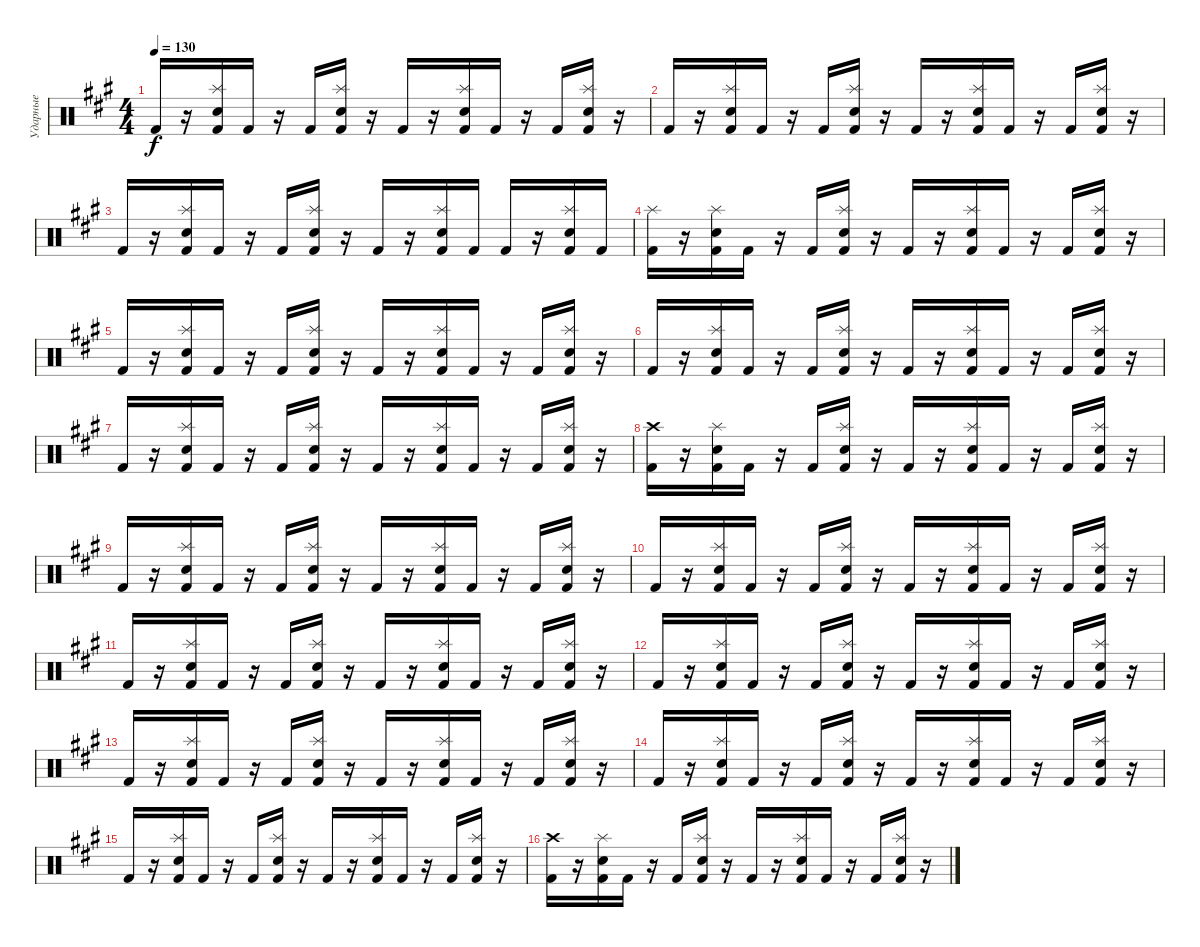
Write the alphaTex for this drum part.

\track ("Ударные" "Ударные") {instrument percussion}
\staff {score}
\articulation defaults
\ts (4 4)
\tempo 130
\clef neutral
\ks f#minor "Kick (hit) 2".16{dy f}
r.16 ("Splash (hit)" "Snare (hit) 2" "Kick (hit) 2").16 "Kick (hit) 2".16 r.16 "Kick (hit) 2".16 ("Splash (hit)" "Snare (hit) 2" "Kick (hit) 2").16 r.16 "Kick (hit) 2".16 r.16 ("Splash (hit)" "Snare (hit) 2" "Kick (hit) 2").16 "Kick (hit) 2".16 r.16 "Kick (hit) 2".16 ("Splash (hit)" "Snare (hit) 2" "Kick (hit) 2").16 r.16 |
"Kick (hit) 2".16 r.16 ("Splash (hit)" "Snare (hit) 2" "Kick (hit) 2").16 "Kick (hit) 2".16 r.16 "Kick (hit) 2".16 ("Splash (hit)" "Snare (hit) 2" "Kick (hit) 2").16 r.16 "Kick (hit) 2".16 r.16 ("Splash (hit)" "Snare (hit) 2" "Kick (hit) 2").16 "Kick (hit) 2".16 r.16 "Kick (hit) 2".16 ("Splash (hit)" "Snare (hit) 2" "Kick (hit) 2").16 r.16 |
"Kick (hit) 2".16 r.16 ("Splash (hit)" "Snare (hit) 2" "Kick (hit) 2").16 "Kick (hit) 2".16 r.16 "Kick (hit) 2".16 ("Splash (hit)" "Snare (hit) 2" "Kick (hit) 2").16 r.16 "Kick (hit) 2".16 r.16 ("Splash (hit)" "Snare (hit) 2" "Kick (hit) 2").16 "Kick (hit) 2".16 "Kick (hit) 2".16 r.16 ("Splash (hit)" "Snare (hit) 2" "Kick (hit) 2").16 "Kick (hit) 2".16 |
("Splash (hit)" "Kick (hit) 2").16 r.16 ("Splash (hit)" "Snare (hit) 2" "Kick (hit) 2").16 "Kick (hit) 2".16 r.16 "Kick (hit) 2".16 ("Splash (hit)" "Snare (hit) 2" "Kick (hit) 2").16 r.16 "Kick (hit) 2".16 r.16 ("Splash (hit)" "Snare (hit) 2" "Kick (hit) 2").16 "Kick (hit) 2".16 r.16 "Kick (hit) 2".16 ("Splash (hit)" "Snare (hit) 2" "Kick (hit) 2").16 r.16 |
"Kick (hit) 2".16 r.16 ("Splash (hit)" "Snare (hit) 2" "Kick (hit) 2").16 "Kick (hit) 2".16 r.16 "Kick (hit) 2".16 ("Splash (hit)" "Snare (hit) 2" "Kick (hit) 2").16 r.16 "Kick (hit) 2".16 r.16 ("Splash (hit)" "Snare (hit) 2" "Kick (hit) 2").16 "Kick (hit) 2".16 r.16 "Kick (hit) 2".16 ("Splash (hit)" "Snare (hit) 2" "Kick (hit) 2").16 r.16 |
"Kick (hit) 2".16 r.16 ("Splash (hit)" "Snare (hit) 2" "Kick (hit) 2").16 "Kick (hit) 2".16 r.16 "Kick (hit) 2".16 ("Splash (hit)" "Snare (hit) 2" "Kick (hit) 2").16 r.16 "Kick (hit) 2".16 r.16 ("Splash (hit)" "Snare (hit) 2" "Kick (hit) 2").16 "Kick (hit) 2".16 r.16 "Kick (hit) 2".16 ("Splash (hit)" "Snare (hit) 2" "Kick (hit) 2").16 r.16 |
"Kick (hit) 2".16 r.16 ("Splash (hit)" "Snare (hit) 2" "Kick (hit) 2").16 "Kick (hit) 2".16 r.16 "Kick (hit) 2".16 ("Splash (hit)" "Snare (hit) 2" "Kick (hit) 2").16 r.16 "Kick (hit) 2".16 r.16 ("Splash (hit)" "Snare (hit) 2" "Kick (hit) 2").16 "Kick (hit) 2".16 r.16 "Kick (hit) 2".16 ("Splash (hit)" "Snare (hit) 2" "Kick (hit) 2").16 r.16 |
("Crash high (hit)" "Kick (hit) 2").16 r.16 ("Splash (hit)" "Snare (hit) 2" "Kick (hit) 2").16 "Kick (hit) 2".16 r.16 "Kick (hit) 2".16 ("Splash (hit)" "Snare (hit) 2" "Kick (hit) 2").16 r.16 "Kick (hit) 2".16 r.16 ("Splash (hit)" "Snare (hit) 2" "Kick (hit) 2").16 "Kick (hit) 2".16 r.16 "Kick (hit) 2".16 ("Splash (hit)" "Snare (hit) 2" "Kick (hit) 2").16 r.16 |
"Kick (hit) 2".16 r.16 ("Splash (hit)" "Snare (hit) 2" "Kick (hit) 2").16 "Kick (hit) 2".16 r.16 "Kick (hit) 2".16 ("Splash (hit)" "Snare (hit) 2" "Kick (hit) 2").16 r.16 "Kick (hit) 2".16 r.16 ("Splash (hit)" "Snare (hit) 2" "Kick (hit) 2").16 "Kick (hit) 2".16 r.16 "Kick (hit) 2".16 ("Splash (hit)" "Snare (hit) 2" "Kick (hit) 2").16 r.16 |
"Kick (hit) 2".16 r.16 ("Splash (hit)" "Snare (hit) 2" "Kick (hit) 2").16 "Kick (hit) 2".16 r.16 "Kick (hit) 2".16 ("Splash (hit)" "Snare (hit) 2" "Kick (hit) 2").16 r.16 "Kick (hit) 2".16 r.16 ("Splash (hit)" "Snare (hit) 2" "Kick (hit) 2").16 "Kick (hit) 2".16 r.16 "Kick (hit) 2".16 ("Splash (hit)" "Snare (hit) 2" "Kick (hit) 2").16 r.16 |
"Kick (hit) 2".16 r.16 ("Splash (hit)" "Snare (hit) 2" "Kick (hit) 2").16 "Kick (hit) 2".16 r.16 "Kick (hit) 2".16 ("Splash (hit)" "Snare (hit) 2" "Kick (hit) 2").16 r.16 "Kick (hit) 2".16 r.16 ("Splash (hit)" "Snare (hit) 2" "Kick (hit) 2").16 "Kick (hit) 2".16 r.16 "Kick (hit) 2".16 ("Splash (hit)" "Snare (hit) 2" "Kick (hit) 2").16 r.16 |
"Kick (hit) 2".16 r.16 ("Splash (hit)" "Snare (hit) 2" "Kick (hit) 2").16 "Kick (hit) 2".16 r.16 "Kick (hit) 2".16 ("Splash (hit)" "Snare (hit) 2" "Kick (hit) 2").16 r.16 "Kick (hit) 2".16 r.16 ("Splash (hit)" "Snare (hit) 2" "Kick (hit) 2").16 "Kick (hit) 2".16 r.16 "Kick (hit) 2".16 ("Splash (hit)" "Snare (hit) 2" "Kick (hit) 2").16 r.16 |
"Kick (hit) 2".16 r.16 ("Splash (hit)" "Snare (hit) 2" "Kick (hit) 2").16 "Kick (hit) 2".16 r.16 "Kick (hit) 2".16 ("Splash (hit)" "Snare (hit) 2" "Kick (hit) 2").16 r.16 "Kick (hit) 2".16 r.16 ("Splash (hit)" "Snare (hit) 2" "Kick (hit) 2").16 "Kick (hit) 2".16 r.16 "Kick (hit) 2".16 ("Splash (hit)" "Snare (hit) 2" "Kick (hit) 2").16 r.16 |
"Kick (hit) 2".16 r.16 ("Splash (hit)" "Snare (hit) 2" "Kick (hit) 2").16 "Kick (hit) 2".16 r.16 "Kick (hit) 2".16 ("Splash (hit)" "Snare (hit) 2" "Kick (hit) 2").16 r.16 "Kick (hit) 2".16 r.16 ("Splash (hit)" "Snare (hit) 2" "Kick (hit) 2").16 "Kick (hit) 2".16 r.16 "Kick (hit) 2".16 ("Splash (hit)" "Snare (hit) 2" "Kick (hit) 2").16 r.16 |
"Kick (hit) 2".16 r.16 ("Splash (hit)" "Snare (hit) 2" "Kick (hit) 2").16 "Kick (hit) 2".16 r.16 "Kick (hit) 2".16 ("Splash (hit)" "Snare (hit) 2" "Kick (hit) 2").16 r.16 "Kick (hit) 2".16 r.16 ("Splash (hit)" "Snare (hit) 2" "Kick (hit) 2").16 "Kick (hit) 2".16 r.16 "Kick (hit) 2".16 ("Splash (hit)" "Snare (hit) 2" "Kick (hit) 2").16 r.16 |
("Crash high (hit)" "Kick (hit) 2").16 r.16 ("Splash (hit)" "Snare (hit) 2" "Kick (hit) 2").16 "Kick (hit) 2".16 r.16 "Kick (hit) 2".16 ("Splash (hit)" "Snare (hit) 2" "Kick (hit) 2").16 r.16 "Kick (hit) 2".16 r.16 ("Splash (hit)" "Snare (hit) 2" "Kick (hit) 2").16 "Kick (hit) 2".16 r.16 "Kick (hit) 2".16 ("Splash (hit)" "Snare (hit) 2" "Kick (hit) 2").16 r.16
